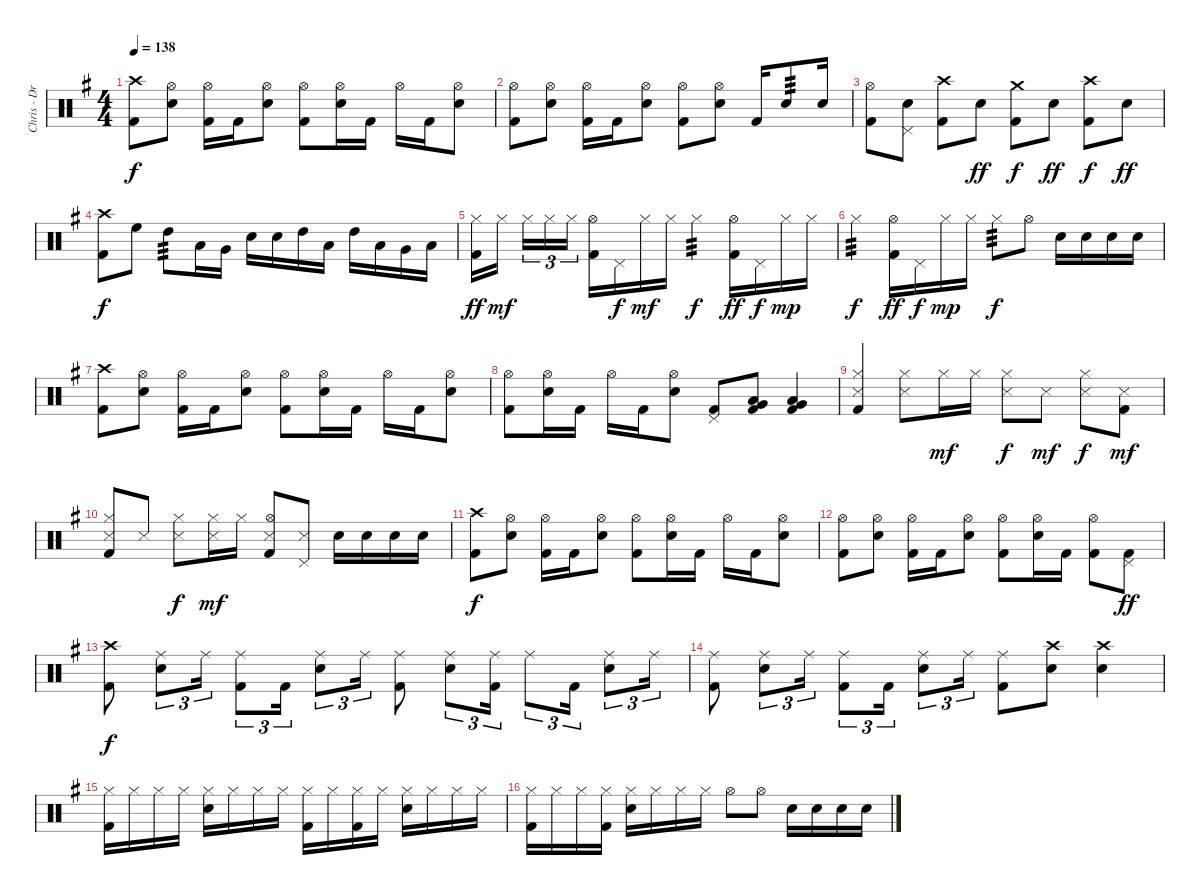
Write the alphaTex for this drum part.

\track ("Chris - Drums" "Chris - Dr") {instrument percussion}
\staff {score}
\articulation defaults
\ts (4 4)
\tempo 138
\clef neutral
\ks g
("Crash high (hit)" "Kick (hit) 2").8{dy f} ("Hi-Hat (open)" "Electric Snare (hit)").8 ("Hi-Hat (open)" "Kick (hit) 2").16 "Kick (hit) 2".16 ("Hi-Hat (open)" "Electric Snare (hit)").8 ("Hi-Hat (open)" "Kick (hit) 2").8 ("Hi-Hat (open)" "Electric Snare (hit)").16 "Kick (hit) 2".16 "Hi-Hat (open)".16 "Kick (hit) 2".16 ("Hi-Hat (open)" "Electric Snare (hit)").8 |
("Hi-Hat (open)" "Kick (hit) 2").8 ("Hi-Hat (open)" "Electric Snare (hit)").8 ("Hi-Hat (open)" "Kick (hit) 2").16 "Kick (hit) 2".16 ("Hi-Hat (open)" "Electric Snare (hit)").8 ("Hi-Hat (open)" "Kick (hit) 2").8 ("Hi-Hat (open)" "Electric Snare (hit)").8 "Kick (hit) 2".16 "Electric Snare (hit)".8{tp 3} "Electric Snare (hit)".16 |
("Hi-Hat (open)" "Kick (hit) 2").8 ("Pedal Hi-Hat (hit)" "Electric Snare (hit)").8 ("Crash high (hit)" "Kick (hit) 2").8 "Electric Snare (hit)".8{dy ff} ("Crash medium (hit)" "Kick (hit) 2").8{dy f} "Electric Snare (hit)".8{dy ff} ("Crash high (hit)" "Kick (hit) 2").8{dy f} "Electric Snare (hit)".8{dy ff} |
("Crash high (hit)" "Kick (hit) 2").8{dy f} "High Floor Tom (hit)".8 "High Tom (hit)".8{tp 3} "Low Tom (hit)".16 "Very Low Tom (hit)".16 "Electric Snare (hit)".16 "Electric Snare (hit)".16 "High Tom (hit)".16 "Low Tom (hit)".16 "High Tom (hit)".16 "Low Tom (hit)".16 "Very Low Tom (hit)".16 "Low Floor Tom (hit)".16 |
("Hi-Hat (closed)" "Kick (hit) 2").16{dy ff} "Hi-Hat (closed)".16{dy mf beam splitsecondary} "Hi-Hat (closed)".16{tu (3 2)} "Hi-Hat (closed)".16{tu (3 2)} "Hi-Hat (closed)".16{tu (3 2)} ("Hi-Hat (open)" "Kick (hit) 2").16 "Pedal Hi-Hat (hit)".16{dy f} "Hi-Hat (closed)".16{dy mf} "Hi-Hat (closed)".16 "Hi-Hat (closed)".4{tp 3 dy f} ("Hi-Hat (open)" "Kick (hit) 2").16{dy ff} "Pedal Hi-Hat (hit)".16{dy f} "Hi-Hat (closed)".16{dy mp} "Hi-Hat (closed)".16 |
"Hi-Hat (closed)".4{tp 3 dy f} ("Hi-Hat (open)" "Kick (hit) 2").16{dy ff} "Pedal Hi-Hat (hit)".16{dy f} "Hi-Hat (closed)".16{dy mp} "Hi-Hat (closed)".16 "Hi-Hat (closed)".8{tp 3 dy f} "Hi-Hat (open)".8 "Electric Snare (hit)".16 "Electric Snare (hit)".16 "Electric Snare (hit)".16 "Electric Snare (hit)".16 |
("Crash high (hit)" "Kick (hit) 2").8 ("Hi-Hat (open)" "Electric Snare (hit)").8 ("Hi-Hat (open)" "Kick (hit) 2").16 "Kick (hit) 2".16 ("Hi-Hat (open)" "Electric Snare (hit)").8 ("Hi-Hat (open)" "Kick (hit) 2").8 ("Hi-Hat (open)" "Electric Snare (hit)").16 "Kick (hit) 2".16 "Hi-Hat (open)".16 "Kick (hit) 2".16 ("Hi-Hat (open)" "Electric Snare (hit)").8 |
("Hi-Hat (open)" "Kick (hit) 2").8 ("Hi-Hat (open)" "Electric Snare (hit)").16 "Kick (hit) 2".16 "Hi-Hat (open)".16 "Kick (hit) 2".16 ("Hi-Hat (open)" "Electric Snare (hit)").8 ("Pedal Hi-Hat (hit)" "Kick (hit) 2").8 ("Very Low Tom (hit)" "Low Floor Tom (hit)" "Kick (hit) 2").8 ("Very Low Tom (hit)" "Low Floor Tom (hit)" "Kick (hit) 2").4 |
("Hi-Hat (closed)" "Snare (side stick) 3" "Kick (hit) 2").4 ("Hi-Hat (closed)" "Snare (side stick) 3").8 "Hi-Hat (closed)".16{dy mf} "Hi-Hat (closed)".16 ("Hi-Hat (closed)" "Snare (side stick) 3").8{dy f} "Snare (side stick) 3".8{dy mf} ("Hi-Hat (closed)" "Snare (side stick) 3").8{dy f} ("Snare (side stick) 3" "Kick (hit) 2").8{dy mf} |
("Hi-Hat (closed)" "Snare (side stick) 3" "Kick (hit) 2").8 "Snare (side stick) 3".8 ("Hi-Hat (closed)" "Snare (side stick) 3").8{dy f} ("Hi-Hat (closed)" "Snare (side stick) 3").16{dy mf} "Hi-Hat (closed)".16 ("Hi-Hat (open)" "Snare (side stick) 3" "Kick (hit) 2").8 ("Pedal Hi-Hat (hit)" "Snare (side stick) 3").8 "Electric Snare (hit)".16 "Electric Snare (hit)".16 "Electric Snare (hit)".16 "Electric Snare (hit)".16 |
("Crash high (hit)" "Kick (hit) 2").8{dy f} ("Hi-Hat (open)" "Electric Snare (hit)").8 ("Hi-Hat (open)" "Kick (hit) 2").16 "Kick (hit) 2".16 ("Hi-Hat (open)" "Electric Snare (hit)").8 ("Hi-Hat (open)" "Kick (hit) 2").8 ("Hi-Hat (open)" "Electric Snare (hit)").16 "Kick (hit) 2".16 "Hi-Hat (open)".16 "Kick (hit) 2".16 ("Hi-Hat (open)" "Electric Snare (hit)").8 |
("Hi-Hat (open)" "Kick (hit) 2").8 ("Hi-Hat (open)" "Electric Snare (hit)").8 ("Hi-Hat (open)" "Kick (hit) 2").16 "Kick (hit) 2".16 ("Hi-Hat (open)" "Electric Snare (hit)").8 ("Hi-Hat (open)" "Kick (hit) 2").8 ("Hi-Hat (open)" "Electric Snare (hit)").16 "Kick (hit) 2".16 ("Hi-Hat (open)" "Kick (hit) 2").8 ("Pedal Hi-Hat (hit)" "Kick (hit) 2").8{dy ff} |
("Crash high (hit)" "Kick (hit) 2").8{dy f} ("Ride (middle)" "Electric Snare (hit)").8{tu (3 2)} "Ride (middle)".16{tu (3 2)} ("Ride (middle)" "Kick (hit) 2").8{tu (3 2)} "Kick (hit) 2".16{tu (3 2)} ("Ride (middle)" "Electric Snare (hit)").8{tu (3 2)} "Ride (middle)".16{tu (3 2)} ("Ride (middle)" "Kick (hit) 2").8 ("Ride (middle)" "Electric Snare (hit)").8{tu (3 2)} ("Ride (middle)" "Kick (hit) 2").16{tu (3 2)} "Ride (middle)".8{tu (3 2)} "Kick (hit) 2".16{tu (3 2)} ("Ride (middle)" "Electric Snare (hit)").8{tu (3 2)} "Ride (middle)".16{tu (3 2)} |
("Ride (middle)" "Kick (hit) 2").8 ("Ride (middle)" "Electric Snare (hit)").8{tu (3 2)} "Ride (middle)".16{tu (3 2)} ("Ride (middle)" "Kick (hit) 2").8{tu (3 2)} "Kick (hit) 2".16{tu (3 2)} ("Ride (middle)" "Electric Snare (hit)").8{tu (3 2)} "Ride (middle)".16{tu (3 2)} ("Ride (middle)" "Kick (hit) 2").8 ("Crash high (hit)" "Electric Snare (hit)").8 ("Crash high (hit)" "Electric Snare (hit)").4 |
("Hi-Hat (closed)" "Kick (hit) 2").16 "Hi-Hat (closed)".16 "Hi-Hat (closed)".16 "Hi-Hat (closed)".16 ("Hi-Hat (closed)" "Electric Snare (hit)").16 "Hi-Hat (closed)".16 "Hi-Hat (closed)".16 "Hi-Hat (closed)".16 ("Hi-Hat (closed)" "Kick (hit) 2").16 "Hi-Hat (closed)".16 ("Hi-Hat (closed)" "Kick (hit) 2").16 "Hi-Hat (closed)".16 ("Hi-Hat (closed)" "Electric Snare (hit)").16 "Hi-Hat (closed)".16 "Hi-Hat (closed)".16 "Hi-Hat (closed)".16 |
("Hi-Hat (closed)" "Kick (hit) 2").16 "Hi-Hat (closed)".16 "Hi-Hat (closed)".16 ("Hi-Hat (closed)" "Kick (hit) 2").16 ("Hi-Hat (closed)" "Electric Snare (hit)").16 "Hi-Hat (closed)".16 "Hi-Hat (closed)".16 "Hi-Hat (closed)".16 "Hi-Hat (open)".8 "Hi-Hat (open)".8 "Electric Snare (hit)".16 "Electric Snare (hit)".16 "Electric Snare (hit)".16 "Electric Snare (hit)".16
